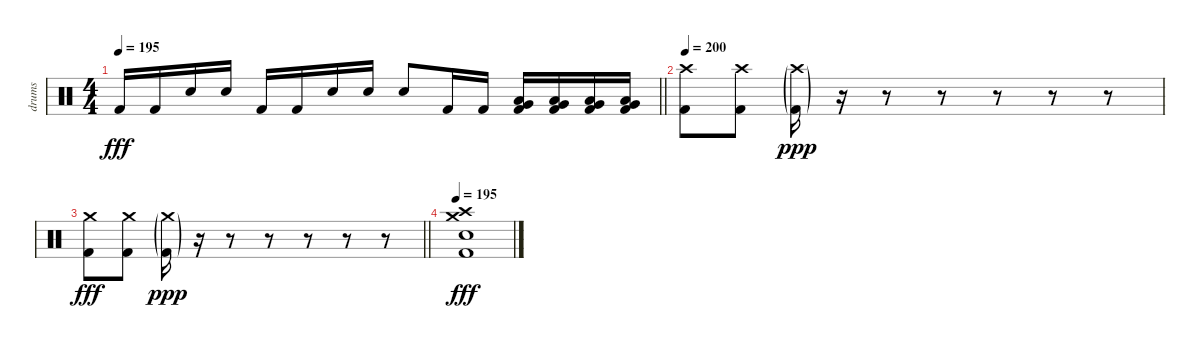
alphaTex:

\track ("drums" "drums") {instrument percussion}
\staff {score}
\articulation defaults
\ts (4 4)
\tempo 195
\clef neutral
\barLineRight lightlight
\ks c "Kick (hit) 2".16{dy fff} "Kick (hit) 2".16 "Electric Snare (hit)".16 "Electric Snare (hit)".16 "Kick (hit) 2".16 "Kick (hit) 2".16 "Electric Snare (hit)".16 "Electric Snare (hit)".16 "Electric Snare (hit)".8 "Kick (hit) 2".16 "Kick (hit) 2".16
("Very Low Tom (hit)" "Low Floor Tom (hit)" "Kick (hit) 2").16 ("Low Floor Tom (hit)" "Very Low Tom (hit)" "Kick (hit) 2").16 ("Very Low Tom (hit)" "Low Floor Tom (hit)" "Kick (hit) 2").16 ("Low Floor Tom (hit)" "Very Low Tom (hit)" "Kick (hit) 2").16 |
\section ("" "")
\tempo 200
("Crash high (hit)" "Kick (hit) 2").8 ("Crash high (hit)" "Kick (hit) 2").8 ("Crash high (hit)"{g} "Kick (hit) 2"{g}).16{dy ppp} r.16 r.8 r.8 r.8 r.8 r.8 |
\barLineRight lightlight
("Crash medium (hit)" "Kick (hit) 2").8{dy fff} ("Crash medium (hit)" "Kick (hit) 2").8 ("Crash medium (hit)"{g} "Kick (hit) 2"{g}).16{dy ppp} r.16 r.8 r.8 r.8 r.8 r.8 |
\section ("" "")
\tempo 180
\tempo 195
("Crash high (hit)" "Crash medium (hit)" "Electric Snare (hit)" "Kick (hit) 2").1{dy fff}
